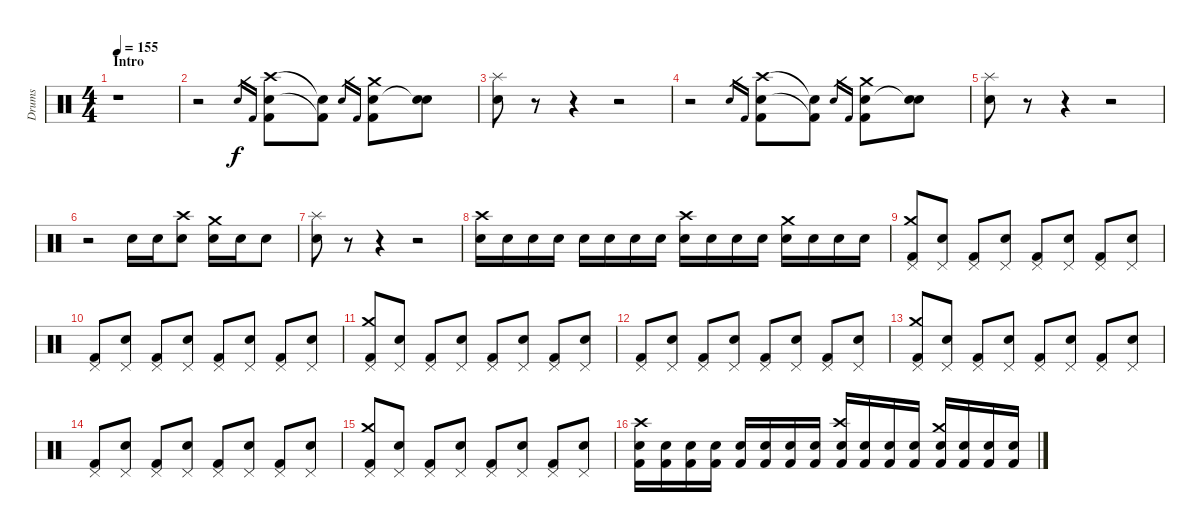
\track ("Drums" "Drums") {instrument percussion}
\staff {score}
\articulation defaults
\ts (4 4)
\section ("" "Intro")
\tempo 155
\clef neutral
\ks c
r.1{dy f} |
r.2 "Electric Snare (hit)".16{gr} "Kick (hit) 2".16{gr} ("Crash high (hit)" "Electric Snare (hit)" "Kick (hit) 2").8 ("Electric Snare (hit)"{t} "Kick (hit) 2"{t}).8 "Electric Snare (hit)".16{gr} "Kick (hit) 2".16{gr} ("Crash medium (hit)" "Electric Snare (hit)" "Kick (hit) 2").8 ("Electric Snare (hit)" "Snare (hit)"{t}).8 |
("Splash (hit)" "Electric Snare (hit)").8 r.8 r.4 r.2 |
r.2 "Electric Snare (hit)".16{gr} "Kick (hit) 2".16{gr} ("Crash high (hit)" "Electric Snare (hit)" "Kick (hit) 2").8 ("Electric Snare (hit)"{t} "Kick (hit) 2"{t}).8 "Electric Snare (hit)".16{gr} "Kick (hit) 2".16{gr} ("Crash medium (hit)" "Electric Snare (hit)" "Kick (hit) 2").8 ("Electric Snare (hit)" "Snare (hit)"{t}).8 |
("Splash (hit)" "Electric Snare (hit)").8 r.8 r.4 r.2 |
r.2 "Electric Snare (hit)".16 "Electric Snare (hit)".16 ("Crash high (hit)" "Electric Snare (hit)").8 ("Crash medium (hit)" "Electric Snare (hit)").16 "Electric Snare (hit)".16 "Electric Snare (hit)".8 |
("Splash (hit)" "Electric Snare (hit)").8 r.8 r.4 r.2 |
("Crash high (hit)" "Electric Snare (hit)").16 "Electric Snare (hit)".16 "Electric Snare (hit)".16 "Electric Snare (hit)".16 "Electric Snare (hit)".16 "Electric Snare (hit)".16 "Electric Snare (hit)".16 "Electric Snare (hit)".16 ("Crash high (hit)" "Electric Snare (hit)").16 "Electric Snare (hit)".16 "Electric Snare (hit)".16 "Electric Snare (hit)".16 ("Crash medium (hit)" "Electric Snare (hit)").16 "Electric Snare (hit)".16 "Electric Snare (hit)".16 "Electric Snare (hit)".16 |
("Pedal Hi-Hat (hit)" "Crash medium (hit)" "Kick (hit) 2").8 ("Pedal Hi-Hat (hit)" "Electric Snare (hit)").8 ("Pedal Hi-Hat (hit)" "Kick (hit) 2").8 ("Pedal Hi-Hat (hit)" "Electric Snare (hit)").8 ("Pedal Hi-Hat (hit)" "Kick (hit) 2").8 ("Pedal Hi-Hat (hit)" "Electric Snare (hit)").8 ("Pedal Hi-Hat (hit)" "Kick (hit) 2").8 ("Pedal Hi-Hat (hit)" "Electric Snare (hit)").8 |
("Pedal Hi-Hat (hit)" "Kick (hit) 2").8 ("Pedal Hi-Hat (hit)" "Electric Snare (hit)").8 ("Pedal Hi-Hat (hit)" "Kick (hit) 2").8 ("Pedal Hi-Hat (hit)" "Electric Snare (hit)").8 ("Pedal Hi-Hat (hit)" "Kick (hit) 2").8 ("Pedal Hi-Hat (hit)" "Electric Snare (hit)").8 ("Pedal Hi-Hat (hit)" "Kick (hit) 2").8 ("Pedal Hi-Hat (hit)" "Electric Snare (hit)").8 |
("Pedal Hi-Hat (hit)" "Crash medium (hit)" "Kick (hit) 2").8 ("Pedal Hi-Hat (hit)" "Electric Snare (hit)").8 ("Pedal Hi-Hat (hit)" "Kick (hit) 2").8 ("Pedal Hi-Hat (hit)" "Electric Snare (hit)").8 ("Pedal Hi-Hat (hit)" "Kick (hit) 2").8 ("Pedal Hi-Hat (hit)" "Electric Snare (hit)").8 ("Pedal Hi-Hat (hit)" "Kick (hit) 2").8 ("Pedal Hi-Hat (hit)" "Electric Snare (hit)").8 |
("Pedal Hi-Hat (hit)" "Kick (hit) 2").8 ("Pedal Hi-Hat (hit)" "Electric Snare (hit)").8 ("Pedal Hi-Hat (hit)" "Kick (hit) 2").8 ("Pedal Hi-Hat (hit)" "Electric Snare (hit)").8 ("Pedal Hi-Hat (hit)" "Kick (hit) 2").8 ("Pedal Hi-Hat (hit)" "Electric Snare (hit)").8 ("Pedal Hi-Hat (hit)" "Kick (hit) 2").8 ("Pedal Hi-Hat (hit)" "Electric Snare (hit)").8 |
("Pedal Hi-Hat (hit)" "Crash medium (hit)" "Kick (hit) 2").8 ("Pedal Hi-Hat (hit)" "Electric Snare (hit)").8 ("Pedal Hi-Hat (hit)" "Kick (hit) 2").8 ("Pedal Hi-Hat (hit)" "Electric Snare (hit)").8 ("Pedal Hi-Hat (hit)" "Kick (hit) 2").8 ("Pedal Hi-Hat (hit)" "Electric Snare (hit)").8 ("Pedal Hi-Hat (hit)" "Kick (hit) 2").8 ("Pedal Hi-Hat (hit)" "Electric Snare (hit)").8 |
("Pedal Hi-Hat (hit)" "Kick (hit) 2").8 ("Pedal Hi-Hat (hit)" "Electric Snare (hit)").8 ("Pedal Hi-Hat (hit)" "Kick (hit) 2").8 ("Pedal Hi-Hat (hit)" "Electric Snare (hit)").8 ("Pedal Hi-Hat (hit)" "Kick (hit) 2").8 ("Pedal Hi-Hat (hit)" "Electric Snare (hit)").8 ("Pedal Hi-Hat (hit)" "Kick (hit) 2").8 ("Pedal Hi-Hat (hit)" "Electric Snare (hit)").8 |
("Pedal Hi-Hat (hit)" "Crash medium (hit)" "Kick (hit) 2").8 ("Pedal Hi-Hat (hit)" "Electric Snare (hit)").8 ("Pedal Hi-Hat (hit)" "Kick (hit) 2").8 ("Pedal Hi-Hat (hit)" "Electric Snare (hit)").8 ("Pedal Hi-Hat (hit)" "Kick (hit) 2").8 ("Pedal Hi-Hat (hit)" "Electric Snare (hit)").8 ("Pedal Hi-Hat (hit)" "Kick (hit) 2").8 ("Pedal Hi-Hat (hit)" "Electric Snare (hit)").8 |
("Crash high (hit)" "Electric Snare (hit)" "Kick (hit) 2").16 ("Electric Snare (hit)" "Kick (hit) 2").16 ("Electric Snare (hit)" "Kick (hit) 2").16 ("Electric Snare (hit)" "Kick (hit) 2").16 ("Electric Snare (hit)" "Kick (hit) 2").16 ("Electric Snare (hit)" "Kick (hit) 2").16 ("Electric Snare (hit)" "Kick (hit) 2").16 ("Electric Snare (hit)" "Kick (hit) 2").16 ("Crash high (hit)" "Snare (hit) 2" "Kick (hit) 2").16 ("Snare (hit) 2" "Kick (hit) 2").16 ("Snare (hit) 2" "Kick (hit) 2").16 ("Snare (hit) 2" "Kick (hit) 2").16 ("Crash medium (hit)" "Snare (hit) 2" "Kick (hit) 2").16 ("Snare (hit) 2" "Kick (hit) 2").16 ("Snare (hit) 2" "Kick (hit) 2").16 ("Snare (hit) 2" "Kick (hit) 2").16
